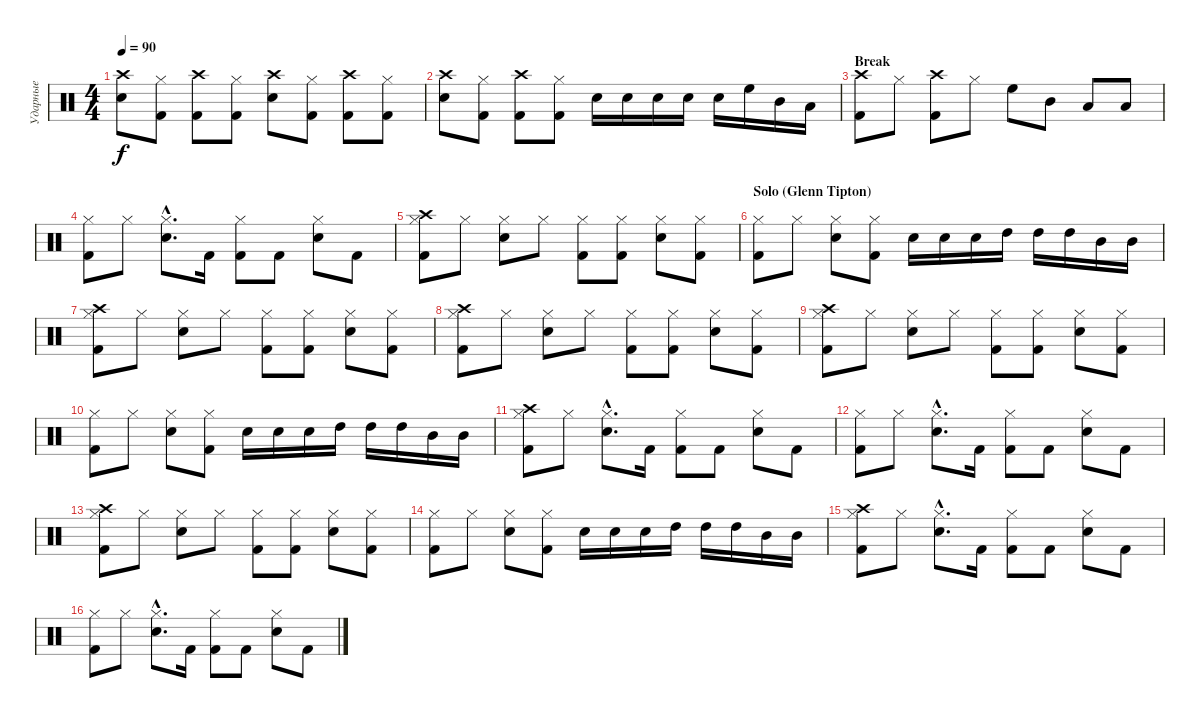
\track ("Ударные" "Ударные") {instrument percussion}
\staff {score}
\articulation defaults
\ts (4 4)
\tempo 90
\clef neutral
\ks c
("Snare (hit) 2" "Crash high (hit)").8{dy f} ("Hi-Hat (closed)" "Kick (hit) 2").8 ("Kick (hit) 2" "Crash high (hit)").8 ("Hi-Hat (closed)" "Kick (hit) 2").8 ("Snare (hit) 2" "Crash high (hit)").8 ("Hi-Hat (closed)" "Kick (hit) 2").8 ("Crash high (hit)" "Kick (hit) 2").8 ("Hi-Hat (closed)" "Kick (hit) 2").8 |
("Snare (hit) 2" "Crash high (hit)").8 ("Hi-Hat (closed)" "Kick (hit) 2").8 ("Kick (hit) 2" "Crash high (hit)").8 ("Hi-Hat (closed)" "Kick (hit) 2").8 "Snare (hit) 2".16 "Snare (hit) 2".16 "Snare (hit) 2".16 "Snare (hit) 2".16 "Snare (hit) 2".16 "High Floor Tom (hit)".16 "Mid Tom (hit)".16 "Low Tom (hit)".16 |
\section ("" "Break")
("Crash high (hit)" "Kick (hit) 2").8 "Hi-Hat (closed)".8 ("Crash high (hit)" "Kick (hit) 2").8 "Hi-Hat (closed)".8 "High Floor Tom (hit)".8 "Mid Tom (hit)".8 "Low Tom (hit)".8 "Low Floor Tom (hit)".8 |
("Hi-Hat (closed)" "Kick (hit) 2").8 "Hi-Hat (closed)".8 ("Hi-Hat (closed)"{hac} "Snare (hit) 2"{hac}).8{d} "Kick (hit) 2".16 ("Hi-Hat (closed)" "Kick (hit) 2").8 "Kick (hit) 2".8 ("Hi-Hat (closed)" "Snare (hit) 2").8 "Kick (hit) 2".8 |
("Crash high (hit)" "Hi-Hat (closed)" "Kick (hit) 2").8 "Hi-Hat (closed)".8 ("Hi-Hat (closed)" "Snare (hit) 2").8 "Hi-Hat (closed)".8 ("Hi-Hat (closed)" "Kick (hit) 2").8 ("Hi-Hat (closed)" "Kick (hit) 2").8 ("Hi-Hat (closed)" "Snare (hit) 2").8 ("Hi-Hat (closed)" "Kick (hit) 2").8 |
\section ("" "Solo (Glenn Tipton)")
("Hi-Hat (closed)" "Kick (hit) 2").8 "Hi-Hat (closed)".8 ("Hi-Hat (closed)" "Snare (hit) 2").8 ("Hi-Hat (closed)" "Kick (hit) 2").8 "Snare (hit) 2".16 "Snare (hit) 2".16 "Snare (hit) 2".16 "High Tom (hit)".16 "High Tom (hit)".16 "High Tom (hit)".16 "Mid Tom (hit)".16 "Mid Tom (hit)".16 |
("Crash high (hit)" "Hi-Hat (closed)" "Kick (hit) 2").8 "Hi-Hat (closed)".8 ("Hi-Hat (closed)" "Snare (hit) 2").8 "Hi-Hat (closed)".8 ("Hi-Hat (closed)" "Kick (hit) 2").8 ("Hi-Hat (closed)" "Kick (hit) 2").8 ("Hi-Hat (closed)" "Snare (hit) 2").8 ("Hi-Hat (closed)" "Kick (hit) 2").8 |
("Crash high (hit)" "Hi-Hat (closed)" "Kick (hit) 2").8 "Hi-Hat (closed)".8 ("Hi-Hat (closed)" "Snare (hit) 2").8 "Hi-Hat (closed)".8 ("Hi-Hat (closed)" "Kick (hit) 2").8 ("Hi-Hat (closed)" "Kick (hit) 2").8 ("Hi-Hat (closed)" "Snare (hit) 2").8 ("Hi-Hat (closed)" "Kick (hit) 2").8 |
("Crash high (hit)" "Hi-Hat (closed)" "Kick (hit) 2").8 "Hi-Hat (closed)".8 ("Hi-Hat (closed)" "Snare (hit) 2").8 "Hi-Hat (closed)".8 ("Hi-Hat (closed)" "Kick (hit) 2").8 ("Hi-Hat (closed)" "Kick (hit) 2").8 ("Hi-Hat (closed)" "Snare (hit) 2").8 ("Hi-Hat (closed)" "Kick (hit) 2").8 |
("Hi-Hat (closed)" "Kick (hit) 2").8 "Hi-Hat (closed)".8 ("Hi-Hat (closed)" "Snare (hit) 2").8 ("Hi-Hat (closed)" "Kick (hit) 2").8 "Snare (hit) 2".16 "Snare (hit) 2".16 "Snare (hit) 2".16 "High Tom (hit)".16 "High Tom (hit)".16 "High Tom (hit)".16 "Mid Tom (hit)".16 "Mid Tom (hit)".16 |
("Crash high (hit)" "Hi-Hat (closed)" "Kick (hit) 2").8 "Hi-Hat (closed)".8 ("Hi-Hat (closed)"{hac} "Snare (hit) 2"{hac}).8{d} "Kick (hit) 2".16 ("Hi-Hat (closed)" "Kick (hit) 2").8 "Kick (hit) 2".8 ("Hi-Hat (closed)" "Snare (hit) 2").8 "Kick (hit) 2".8 |
("Hi-Hat (closed)" "Kick (hit) 2").8 "Hi-Hat (closed)".8 ("Hi-Hat (closed)"{hac} "Snare (hit) 2"{hac}).8{d} "Kick (hit) 2".16 ("Hi-Hat (closed)" "Kick (hit) 2").8 "Kick (hit) 2".8 ("Hi-Hat (closed)" "Snare (hit) 2").8 "Kick (hit) 2".8 |
("Crash high (hit)" "Hi-Hat (closed)" "Kick (hit) 2").8 "Hi-Hat (closed)".8 ("Hi-Hat (closed)" "Snare (hit) 2").8 "Hi-Hat (closed)".8 ("Hi-Hat (closed)" "Kick (hit) 2").8 ("Hi-Hat (closed)" "Kick (hit) 2").8 ("Hi-Hat (closed)" "Snare (hit) 2").8 ("Hi-Hat (closed)" "Kick (hit) 2").8 |
("Hi-Hat (closed)" "Kick (hit) 2").8 "Hi-Hat (closed)".8 ("Hi-Hat (closed)" "Snare (hit) 2").8 ("Hi-Hat (closed)" "Kick (hit) 2").8 "Snare (hit) 2".16 "Snare (hit) 2".16 "Snare (hit) 2".16 "High Tom (hit)".16 "High Tom (hit)".16 "High Tom (hit)".16 "Mid Tom (hit)".16 "Mid Tom (hit)".16 |
("Crash high (hit)" "Hi-Hat (closed)" "Kick (hit) 2").8 "Hi-Hat (closed)".8 ("Hi-Hat (closed)"{hac} "Snare (hit) 2"{hac}).8{d} "Kick (hit) 2".16 ("Hi-Hat (closed)" "Kick (hit) 2").8 "Kick (hit) 2".8 ("Hi-Hat (closed)" "Snare (hit) 2").8 "Kick (hit) 2".8 |
("Hi-Hat (closed)" "Kick (hit) 2").8 "Hi-Hat (closed)".8 ("Hi-Hat (closed)"{hac} "Snare (hit) 2"{hac}).8{d} "Kick (hit) 2".16 ("Hi-Hat (closed)" "Kick (hit) 2").8 "Kick (hit) 2".8 ("Hi-Hat (closed)" "Snare (hit) 2").8 "Kick (hit) 2".8
